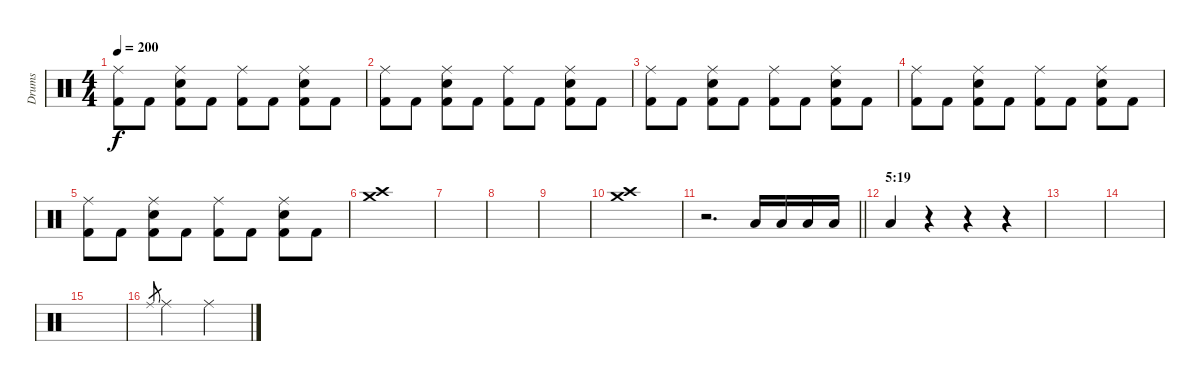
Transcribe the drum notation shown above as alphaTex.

\track ("Drums" "Drums") {instrument percussion}
\staff {score}
\articulation defaults
\ts (4 4)
\tempo 200
\clef neutral
\ks c
("Ride (middle)" "Kick (hit) 2").8{dy f} "Kick (hit) 2".8 ("Ride (middle)" "Snare (hit) 2" "Kick (hit) 2").8 "Kick (hit) 2".8 ("Ride (middle)" "Kick (hit) 2").8 "Kick (hit) 2".8 ("Ride (middle)" "Snare (hit) 2" "Kick (hit) 2").8 "Kick (hit) 2".8 |
("Ride (middle)" "Kick (hit) 2").8 "Kick (hit) 2".8 ("Ride (middle)" "Snare (hit) 2" "Kick (hit) 2").8 "Kick (hit) 2".8 ("Ride (middle)" "Kick (hit) 2").8 "Kick (hit) 2".8 ("Ride (middle)" "Snare (hit) 2" "Kick (hit) 2").8 "Kick (hit) 2".8 |
("Ride (middle)" "Kick (hit) 2").8 "Kick (hit) 2".8 ("Ride (middle)" "Snare (hit) 2" "Kick (hit) 2").8 "Kick (hit) 2".8 ("Ride (middle)" "Kick (hit) 2").8 "Kick (hit) 2".8 ("Ride (middle)" "Snare (hit) 2" "Kick (hit) 2").8 "Kick (hit) 2".8 |
("Ride (middle)" "Kick (hit) 2").8 "Kick (hit) 2".8 ("Ride (middle)" "Snare (hit) 2" "Kick (hit) 2").8 "Kick (hit) 2".8 ("Ride (middle)" "Kick (hit) 2").8 "Kick (hit) 2".8 ("Ride (middle)" "Snare (hit) 2" "Kick (hit) 2").8 "Kick (hit) 2".8 |
("Ride (middle)" "Kick (hit) 2").8 "Kick (hit) 2".8 ("Ride (middle)" "Snare (hit) 2" "Kick (hit) 2").8 "Kick (hit) 2".8 ("Ride (middle)" "Kick (hit) 2").8 "Kick (hit) 2".8 ("Ride (middle)" "Snare (hit) 2" "Kick (hit) 2").8 "Kick (hit) 2".8 |
("Crash high (hit)" "Crash medium (hit)").1 |
|
|
|
("Crash high (hit)" "Crash medium (hit)").1 |
\barLineRight lightlight
r.2{d} "Low Tom (hit)".16 "Low Tom (hit)".16 "Low Tom (hit)".16 "Low Tom (hit)".16 |
\section ("" "5:19")
"Low Tom (hit)".4 r.4 r.4 r.4 |
|
|
|
"Ride (middle)".8{gr} "Ride (middle)".2 "Ride (middle)".2
